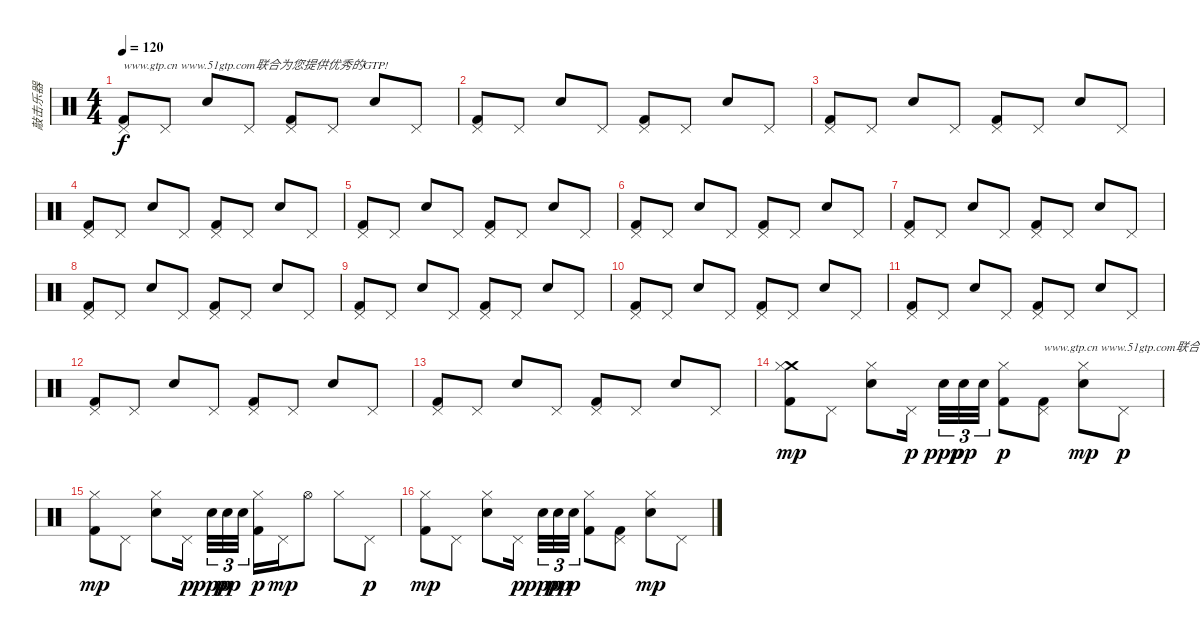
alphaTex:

\track ("敲击乐器" "敲击乐器") {instrument percussion}
\staff {score}
\articulation defaults
\ts (4 4)
\tempo 120
\clef neutral
\ks c
("Pedal Hi-Hat (hit)" "Kick (hit) 2").8{txt "www.gtp.cn www.51gtp.com联合为您提供优秀的GTP!" dy f} "Pedal Hi-Hat (hit)".8 "Snare (hit) 2".8 "Pedal Hi-Hat (hit)".8 ("Pedal Hi-Hat (hit)" "Kick (hit) 2").8 "Pedal Hi-Hat (hit)".8 "Snare (hit) 2".8 "Pedal Hi-Hat (hit)".8 |
("Pedal Hi-Hat (hit)" "Kick (hit) 2").8 "Pedal Hi-Hat (hit)".8 "Snare (hit) 2".8 "Pedal Hi-Hat (hit)".8 ("Pedal Hi-Hat (hit)" "Kick (hit) 2").8 "Pedal Hi-Hat (hit)".8 "Snare (hit) 2".8 "Pedal Hi-Hat (hit)".8 |
("Pedal Hi-Hat (hit)" "Kick (hit) 2").8 "Pedal Hi-Hat (hit)".8 "Snare (hit) 2".8 "Pedal Hi-Hat (hit)".8 ("Pedal Hi-Hat (hit)" "Kick (hit) 2").8 "Pedal Hi-Hat (hit)".8 "Snare (hit) 2".8 "Pedal Hi-Hat (hit)".8 |
("Pedal Hi-Hat (hit)" "Kick (hit) 2").8 "Pedal Hi-Hat (hit)".8 "Snare (hit) 2".8 "Pedal Hi-Hat (hit)".8 ("Pedal Hi-Hat (hit)" "Kick (hit) 2").8 "Pedal Hi-Hat (hit)".8 "Snare (hit) 2".8 "Pedal Hi-Hat (hit)".8 |
("Pedal Hi-Hat (hit)" "Kick (hit) 2").8 "Pedal Hi-Hat (hit)".8 "Snare (hit) 2".8 "Pedal Hi-Hat (hit)".8 ("Pedal Hi-Hat (hit)" "Kick (hit) 2").8 "Pedal Hi-Hat (hit)".8 "Snare (hit) 2".8 "Pedal Hi-Hat (hit)".8 |
("Pedal Hi-Hat (hit)" "Kick (hit) 2").8 "Pedal Hi-Hat (hit)".8 "Snare (hit) 2".8 "Pedal Hi-Hat (hit)".8 ("Pedal Hi-Hat (hit)" "Kick (hit) 2").8 "Pedal Hi-Hat (hit)".8 "Snare (hit) 2".8 "Pedal Hi-Hat (hit)".8 |
("Pedal Hi-Hat (hit)" "Kick (hit) 2").8 "Pedal Hi-Hat (hit)".8 "Snare (hit) 2".8 "Pedal Hi-Hat (hit)".8 ("Pedal Hi-Hat (hit)" "Kick (hit) 2").8 "Pedal Hi-Hat (hit)".8 "Snare (hit) 2".8 "Pedal Hi-Hat (hit)".8 |
("Pedal Hi-Hat (hit)" "Kick (hit) 2").8 "Pedal Hi-Hat (hit)".8 "Snare (hit) 2".8 "Pedal Hi-Hat (hit)".8 ("Pedal Hi-Hat (hit)" "Kick (hit) 2").8 "Pedal Hi-Hat (hit)".8 "Snare (hit) 2".8 "Pedal Hi-Hat (hit)".8 |
("Pedal Hi-Hat (hit)" "Kick (hit) 2").8 "Pedal Hi-Hat (hit)".8 "Snare (hit) 2".8 "Pedal Hi-Hat (hit)".8 ("Pedal Hi-Hat (hit)" "Kick (hit) 2").8 "Pedal Hi-Hat (hit)".8 "Snare (hit) 2".8 "Pedal Hi-Hat (hit)".8 |
("Pedal Hi-Hat (hit)" "Kick (hit) 2").8 "Pedal Hi-Hat (hit)".8 "Snare (hit) 2".8 "Pedal Hi-Hat (hit)".8 ("Pedal Hi-Hat (hit)" "Kick (hit) 2").8 "Pedal Hi-Hat (hit)".8 "Snare (hit) 2".8 "Pedal Hi-Hat (hit)".8 |
("Pedal Hi-Hat (hit)" "Kick (hit) 2").8 "Pedal Hi-Hat (hit)".8 "Snare (hit) 2".8 "Pedal Hi-Hat (hit)".8 ("Pedal Hi-Hat (hit)" "Kick (hit) 2").8 "Pedal Hi-Hat (hit)".8 "Snare (hit) 2".8 "Pedal Hi-Hat (hit)".8 |
("Pedal Hi-Hat (hit)" "Kick (hit) 2").8 "Pedal Hi-Hat (hit)".8 "Snare (hit) 2".8 "Pedal Hi-Hat (hit)".8 ("Pedal Hi-Hat (hit)" "Kick (hit) 2").8 "Pedal Hi-Hat (hit)".8 "Snare (hit) 2".8 "Pedal Hi-Hat (hit)".8 |
("Pedal Hi-Hat (hit)" "Kick (hit) 2").8 "Pedal Hi-Hat (hit)".8 "Snare (hit) 2".8 "Pedal Hi-Hat (hit)".8 ("Pedal Hi-Hat (hit)" "Kick (hit) 2").8 "Pedal Hi-Hat (hit)".8 "Snare (hit) 2".8 "Pedal Hi-Hat (hit)".8 |
("Crash medium (hit)" "Hi-Hat (closed)" "Kick (hit) 2").8{dy mp} "Pedal Hi-Hat (hit)".8 ("Hi-Hat (closed)" "Electric Snare (hit)").8 "Pedal Hi-Hat (hit)".16{dy p beam splitsecondary} "Electric Snare (hit)".32{tu (3 2) dy ppp} "Electric Snare (hit)".32{tu (3 2) dy pp} "Electric Snare (hit)".32{tu (3 2)} ("Hi-Hat (closed)" "Kick (hit) 2").8{dy p} ("Pedal Hi-Hat (hit)" "Kick (hit) 2").8{txt "www.gtp.cn www.51gtp.com联合为您提供优秀的GTP!"} ("Hi-Hat (closed)" "Electric Snare (hit)").8{dy mp} "Pedal Hi-Hat (hit)".8{dy p} |
("Hi-Hat (closed)" "Kick (hit) 2").8{dy mp} "Pedal Hi-Hat (hit)".8 ("Hi-Hat (closed)" "Electric Snare (hit)").8 "Pedal Hi-Hat (hit)".16{dy p beam splitsecondary} "Electric Snare (hit)".32{tu (3 2) dy ppp} "Electric Snare (hit)".32{tu (3 2) dy pp} "Electric Snare (hit)".32{tu (3 2)} ("Hi-Hat (closed)" "Kick (hit) 2").16{dy p} "Pedal Hi-Hat (hit)".16{dy mp} "Hi-Hat (open)".8 "Hi-Hat (closed)".8 "Pedal Hi-Hat (hit)".8{dy p} |
("Hi-Hat (closed)" "Kick (hit) 2").8{dy mp} "Pedal Hi-Hat (hit)".8 ("Hi-Hat (closed)" "Electric Snare (hit)").8 "Pedal Hi-Hat (hit)".16{dy p beam splitsecondary} "Electric Snare (hit)".32{tu (3 2) dy ppp} "Electric Snare (hit)".32{tu (3 2) dy pp} "Electric Snare (hit)".32{tu (3 2) dy p} ("Hi-Hat (closed)" "Kick (hit) 2").8 ("Pedal Hi-Hat (hit)" "Kick (hit) 2").8 ("Hi-Hat (closed)" "Electric Snare (hit)").8{dy mp} "Pedal Hi-Hat (hit)".8
